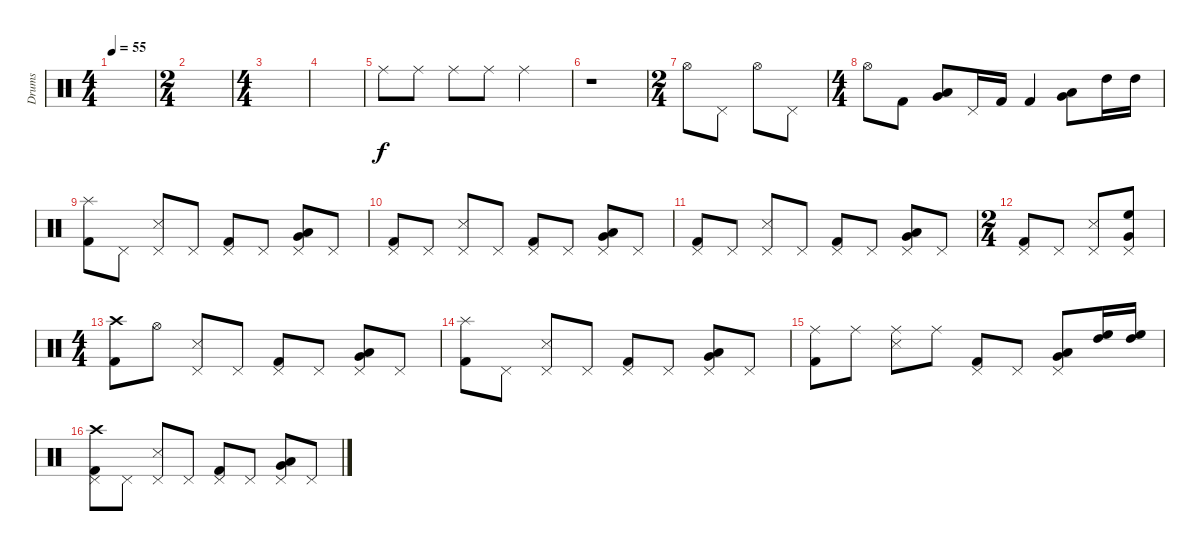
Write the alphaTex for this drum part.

\track ("Drums" "Drums") {instrument percussion}
\staff {score}
\articulation defaults
\ts (4 4)
\tempo 55
\clef neutral
\ks c
|
\ts (2 4)
|
\ts (4 4)
|
|
"Ride (middle)".8 "Ride (middle)".8 "Ride (middle)".8 "Ride (middle)".8 "Ride (middle)".2 |
r.1 |
\ts (2 4)
"Hi-Hat (open)".8 "Pedal Hi-Hat (hit)".8 "Hi-Hat (open)".8 "Pedal Hi-Hat (hit)".8 |
\ts (4 4)
"Hi-Hat (open)".8 "Kick (hit) 2".8 ("Very Low Tom (hit)" "Low Floor Tom (hit)").8 "Pedal Hi-Hat (hit)".16 "Kick (hit) 2".16 "Kick (hit) 2".4 ("Very Low Tom (hit)" "Low Floor Tom (hit)").8 "High Tom (hit)".16 "High Tom (hit)".16 |
("Splash (hit)" "Kick (hit) 2").8 "Pedal Hi-Hat (hit)".8 ("Pedal Hi-Hat (hit)" "Snare (side stick) 3").8 "Pedal Hi-Hat (hit)".8 ("Pedal Hi-Hat (hit)" "Kick (hit) 2").8 "Pedal Hi-Hat (hit)".8 ("Pedal Hi-Hat (hit)" "Very Low Tom (hit)" "Low Floor Tom (hit)").8 "Pedal Hi-Hat (hit)".8 |
("Pedal Hi-Hat (hit)" "Kick (hit) 2").8 "Pedal Hi-Hat (hit)".8 ("Pedal Hi-Hat (hit)" "Snare (side stick) 3").8 "Pedal Hi-Hat (hit)".8 ("Pedal Hi-Hat (hit)" "Kick (hit) 2").8 "Pedal Hi-Hat (hit)".8 ("Pedal Hi-Hat (hit)" "Very Low Tom (hit)" "Low Floor Tom (hit)").8 "Pedal Hi-Hat (hit)".8 |
("Pedal Hi-Hat (hit)" "Kick (hit) 2").8 "Pedal Hi-Hat (hit)".8 ("Pedal Hi-Hat (hit)" "Snare (side stick) 3").8 "Pedal Hi-Hat (hit)".8 ("Pedal Hi-Hat (hit)" "Kick (hit) 2").8 "Pedal Hi-Hat (hit)".8 ("Pedal Hi-Hat (hit)" "Very Low Tom (hit)" "Low Floor Tom (hit)").8 "Pedal Hi-Hat (hit)".8 |
\ts (2 4)
("Pedal Hi-Hat (hit)" "Kick (hit) 2").8 "Pedal Hi-Hat (hit)".8 ("Pedal Hi-Hat (hit)" "Snare (side stick) 3").8 ("Pedal Hi-Hat (hit)" "High Floor Tom (hit)" "Very Low Tom (hit)").8 |
\ts (4 4)
("Crash high (hit)" "Kick (hit) 2").8 "Hi-Hat (open)".8 ("Pedal Hi-Hat (hit)" "Snare (side stick) 3").8 "Pedal Hi-Hat (hit)".8 ("Pedal Hi-Hat (hit)" "Kick (hit) 2").8 "Pedal Hi-Hat (hit)".8 ("Pedal Hi-Hat (hit)" "Very Low Tom (hit)" "Low Floor Tom (hit)").8 "Pedal Hi-Hat (hit)".8 |
("Splash (hit)" "Kick (hit) 2").8 "Pedal Hi-Hat (hit)".8 ("Pedal Hi-Hat (hit)" "Snare (side stick) 3").8 "Pedal Hi-Hat (hit)".8 ("Pedal Hi-Hat (hit)" "Kick (hit) 2").8 "Pedal Hi-Hat (hit)".8 ("Pedal Hi-Hat (hit)" "Very Low Tom (hit)" "Low Floor Tom (hit)").8 "Pedal Hi-Hat (hit)".8 |
("Ride (middle)" "Kick (hit) 2").8 "Ride (middle)".8 ("Ride (middle)" "Snare (side stick) 3").8 "Ride (middle)".8 ("Pedal Hi-Hat (hit)" "Kick (hit) 2").8 "Pedal Hi-Hat (hit)".8 ("Pedal Hi-Hat (hit)" "Very Low Tom (hit)" "Low Floor Tom (hit)").8 ("High Floor Tom (hit)" "High Tom (hit)").16 ("High Floor Tom (hit)" "High Tom (hit)").16 |
("Crash high (hit)" "Pedal Hi-Hat (hit)" "Kick (hit) 2").8 "Pedal Hi-Hat (hit)".8 ("Pedal Hi-Hat (hit)" "Snare (side stick) 3").8 "Pedal Hi-Hat (hit)".8 ("Pedal Hi-Hat (hit)" "Kick (hit) 2").8 "Pedal Hi-Hat (hit)".8 ("Pedal Hi-Hat (hit)" "Very Low Tom (hit)" "Low Floor Tom (hit)").8 "Pedal Hi-Hat (hit)".8
